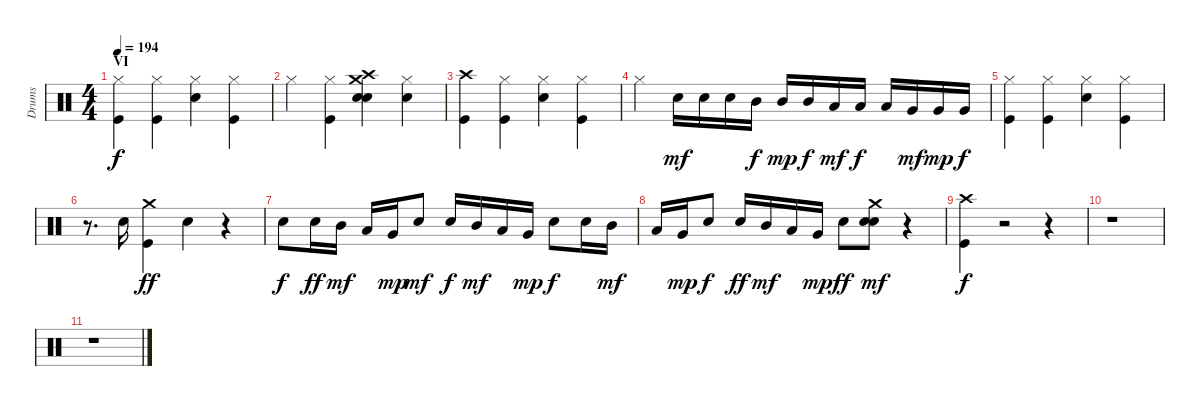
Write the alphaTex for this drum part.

\track ("Drums" "Drums") {instrument percussion}
\staff {score}
\articulation defaults
\ts (4 4)
\section ("" "VI")
\tempo 194
\clef neutral
\ks c
("Kick (hit)" "Hi-Hat (closed)").4{dy f} ("Kick (hit)" "Hi-Hat (closed)").4 ("Snare (hit) 2" "Hi-Hat (closed)").4 ("Kick (hit)" "Hi-Hat (closed)").4 |
"Hi-Hat (closed)".4 ("Kick (hit)" "Hi-Hat (closed)").4 ("Snare (hit) 2" "Snare (hit)" "Crash medium (hit)" "Crash high (hit)").4 ("Snare (hit) 2" "Hi-Hat (closed)").4 |
("Kick (hit)" "Crash high (hit)").4 ("Kick (hit)" "Hi-Hat (closed)").4 ("Snare (hit) 2" "Hi-Hat (closed)").4 ("Kick (hit)" "Hi-Hat (closed)").4 |
"Hi-Hat (closed)".4 "Snare (hit) 2".16{dy mf} "Snare (hit) 2".16 "Snare (hit) 2".16 "Mid Tom (hit)".16{dy f} "Mid Tom (hit)".16{dy mp} "Mid Tom (hit)".16{dy f} "Low Tom (hit)".16{dy mf} "Low Tom (hit)".16{dy f} "Low Tom (hit)".16 "Very Low Tom (hit)".16{dy mf} "Very Low Tom (hit)".16{dy mp} "Very Low Tom (hit)".16{dy f} |
("Kick (hit)" "Hi-Hat (closed)").4 ("Kick (hit)" "Hi-Hat (closed)").4 ("Snare (hit) 2" "Hi-Hat (closed)").4 ("Kick (hit)" "Hi-Hat (closed)").4 |
r.8{d} "Snare (hit) 2".16 ("Kick (hit)" "Crash medium (hit)").4{dy ff} "Snare (hit) 2".4 r.4 |
"Snare (hit) 2".8{dy f} "Snare (hit) 2".16{dy ff} "Mid Tom (hit)".16{dy mf} "Low Tom (hit)".16 "Very Low Tom (hit)".16{dy mp} "Snare (hit) 2".8{dy mf} "Snare (hit) 2".16{dy f} "Mid Tom (hit)".16{dy mf} "Low Tom (hit)".16 "Very Low Tom (hit)".16{dy mp} "Snare (hit) 2".8{dy f} "Snare (hit) 2".16 "Mid Tom (hit)".16{dy mf} |
"Low Tom (hit)".16 "Very Low Tom (hit)".16{dy mp} "Snare (hit) 2".8{dy f} "Snare (hit) 2".16{dy ff} "Mid Tom (hit)".16{dy mf} "Low Tom (hit)".16 "Very Low Tom (hit)".16{dy mp} "Snare (hit) 2".8{dy ff} ("Snare (hit)" "Snare (hit) 2" "Crash medium (hit)").8{dy mf} r.4 |
("Kick (hit)" "Crash high (hit)").4{dy f} r.2 r.4 |
r.1 |
r.1
